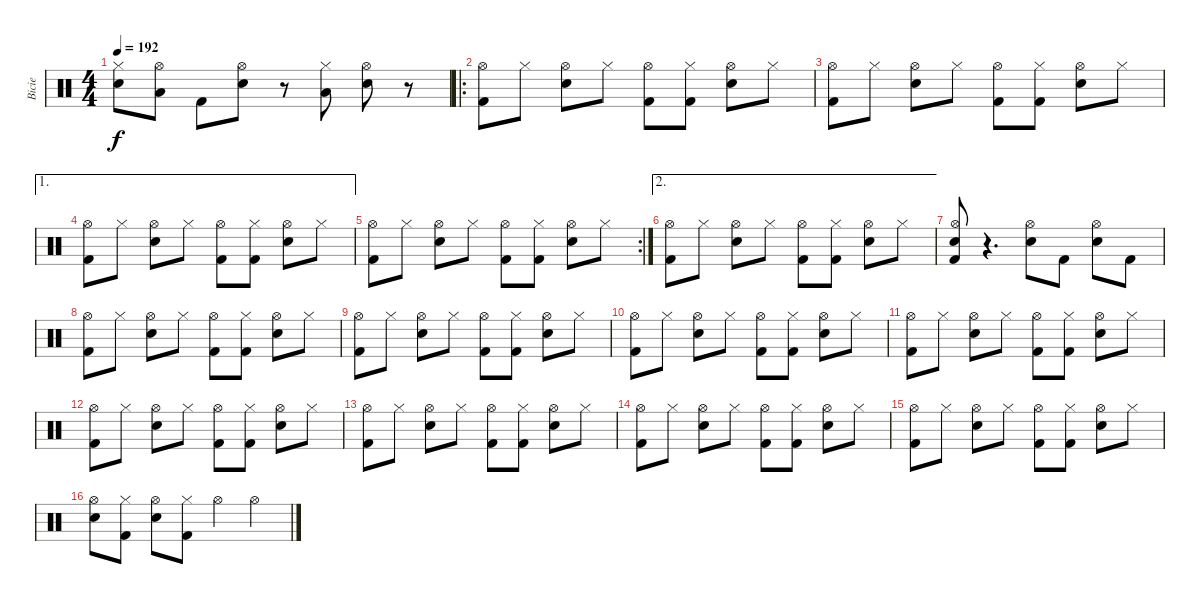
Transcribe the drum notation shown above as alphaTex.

\track ("Bicie" "Bicie") {instrument percussion}
\staff {score}
\articulation defaults
\ts (4 4)
\tempo 192
\clef neutral
\ks c
("Hi-Hat (closed)" "Electric Snare (hit)").8{dy f} ("Hi-Hat (open)" "Low Tom (hit)").8 "Kick (hit) 2".8 ("Hi-Hat (open)" "Electric Snare (hit)").8 r.8 ("Hi-Hat (closed)" "Low Tom (hit)").8 ("Hi-Hat (open)" "Electric Snare (hit)").8 r.8 |
\ro
("Hi-Hat (open)" "Kick (hit) 2").8 "Hi-Hat (closed)".8 ("Hi-Hat (open)" "Electric Snare (hit)").8 "Hi-Hat (closed)".8 ("Hi-Hat (open)" "Kick (hit) 2").8 ("Hi-Hat (closed)" "Kick (hit) 2").8 ("Hi-Hat (open)" "Electric Snare (hit)").8 "Hi-Hat (closed)".8 |
("Hi-Hat (open)" "Kick (hit) 2").8 "Hi-Hat (closed)".8 ("Hi-Hat (open)" "Electric Snare (hit)").8 "Hi-Hat (closed)".8 ("Hi-Hat (open)" "Kick (hit) 2").8 ("Hi-Hat (closed)" "Kick (hit) 2").8 ("Hi-Hat (open)" "Electric Snare (hit)").8 "Hi-Hat (closed)".8 |
\ae 1
("Hi-Hat (open)" "Kick (hit) 2").8 "Hi-Hat (closed)".8 ("Hi-Hat (open)" "Electric Snare (hit)").8 "Hi-Hat (closed)".8 ("Hi-Hat (open)" "Kick (hit) 2").8 ("Hi-Hat (closed)" "Kick (hit) 2").8 ("Hi-Hat (open)" "Electric Snare (hit)").8 "Hi-Hat (closed)".8 |
\rc 2
("Hi-Hat (open)" "Kick (hit) 2").8 "Hi-Hat (closed)".8 ("Hi-Hat (open)" "Electric Snare (hit)").8 "Hi-Hat (closed)".8 ("Hi-Hat (open)" "Kick (hit) 2").8 ("Hi-Hat (closed)" "Kick (hit) 2").8 ("Hi-Hat (open)" "Electric Snare (hit)").8 "Hi-Hat (closed)".8 |
\ae 2
("Hi-Hat (open)" "Kick (hit) 2").8 "Hi-Hat (closed)".8 ("Hi-Hat (open)" "Electric Snare (hit)").8 "Hi-Hat (closed)".8 ("Hi-Hat (open)" "Kick (hit) 2").8 ("Hi-Hat (closed)" "Kick (hit) 2").8 ("Hi-Hat (open)" "Electric Snare (hit)").8 "Hi-Hat (closed)".8 |
("Hi-Hat (open)" "Electric Snare (hit)" "Kick (hit) 2").8 r.4{d} ("Hi-Hat (open)" "Electric Snare (hit)").8 "Kick (hit) 2".8 ("Hi-Hat (open)" "Electric Snare (hit)").8 "Kick (hit) 2".8 |
("Hi-Hat (open)" "Kick (hit) 2").8 "Hi-Hat (closed)".8 ("Hi-Hat (open)" "Electric Snare (hit)").8 "Hi-Hat (closed)".8 ("Hi-Hat (open)" "Kick (hit) 2").8 ("Hi-Hat (closed)" "Kick (hit) 2").8 ("Hi-Hat (open)" "Electric Snare (hit)").8 "Hi-Hat (closed)".8 |
("Hi-Hat (open)" "Kick (hit) 2").8 "Hi-Hat (closed)".8 ("Hi-Hat (open)" "Electric Snare (hit)").8 "Hi-Hat (closed)".8 ("Hi-Hat (open)" "Kick (hit) 2").8 ("Hi-Hat (closed)" "Kick (hit) 2").8 ("Hi-Hat (open)" "Electric Snare (hit)").8 "Hi-Hat (closed)".8 |
("Hi-Hat (open)" "Kick (hit) 2").8 "Hi-Hat (closed)".8 ("Hi-Hat (open)" "Electric Snare (hit)").8 "Hi-Hat (closed)".8 ("Hi-Hat (open)" "Kick (hit) 2").8 ("Hi-Hat (closed)" "Kick (hit) 2").8 ("Hi-Hat (open)" "Electric Snare (hit)").8 "Hi-Hat (closed)".8 |
("Hi-Hat (open)" "Kick (hit) 2").8 "Hi-Hat (closed)".8 ("Hi-Hat (open)" "Electric Snare (hit)").8 "Hi-Hat (closed)".8 ("Hi-Hat (open)" "Kick (hit) 2").8 ("Hi-Hat (closed)" "Kick (hit) 2").8 ("Hi-Hat (open)" "Electric Snare (hit)").8 "Hi-Hat (closed)".8 |
("Hi-Hat (open)" "Kick (hit) 2").8 "Hi-Hat (closed)".8 ("Hi-Hat (open)" "Electric Snare (hit)").8 "Hi-Hat (closed)".8 ("Hi-Hat (open)" "Kick (hit) 2").8 ("Hi-Hat (closed)" "Kick (hit) 2").8 ("Hi-Hat (open)" "Electric Snare (hit)").8 "Hi-Hat (closed)".8 |
("Hi-Hat (open)" "Kick (hit) 2").8 "Hi-Hat (closed)".8 ("Hi-Hat (open)" "Electric Snare (hit)").8 "Hi-Hat (closed)".8 ("Hi-Hat (open)" "Kick (hit) 2").8 ("Hi-Hat (closed)" "Kick (hit) 2").8 ("Hi-Hat (open)" "Electric Snare (hit)").8 "Hi-Hat (closed)".8 |
("Hi-Hat (open)" "Kick (hit) 2").8 "Hi-Hat (closed)".8 ("Hi-Hat (open)" "Electric Snare (hit)").8 "Hi-Hat (closed)".8 ("Hi-Hat (open)" "Kick (hit) 2").8 ("Hi-Hat (closed)" "Kick (hit) 2").8 ("Hi-Hat (open)" "Electric Snare (hit)").8 "Hi-Hat (closed)".8 |
("Hi-Hat (open)" "Kick (hit) 2").8 "Hi-Hat (closed)".8 ("Hi-Hat (open)" "Electric Snare (hit)").8 "Hi-Hat (closed)".8 ("Hi-Hat (open)" "Kick (hit) 2").8 ("Hi-Hat (closed)" "Kick (hit) 2").8 ("Hi-Hat (open)" "Electric Snare (hit)").8 "Hi-Hat (closed)".8 |
("Hi-Hat (open)" "Electric Snare (hit)").8 ("Hi-Hat (closed)" "Kick (hit) 2").8 ("Hi-Hat (open)" "Electric Snare (hit)").8 ("Hi-Hat (closed)" "Kick (hit) 2").8 "Hi-Hat (open)".4 "Hi-Hat (open)".4
